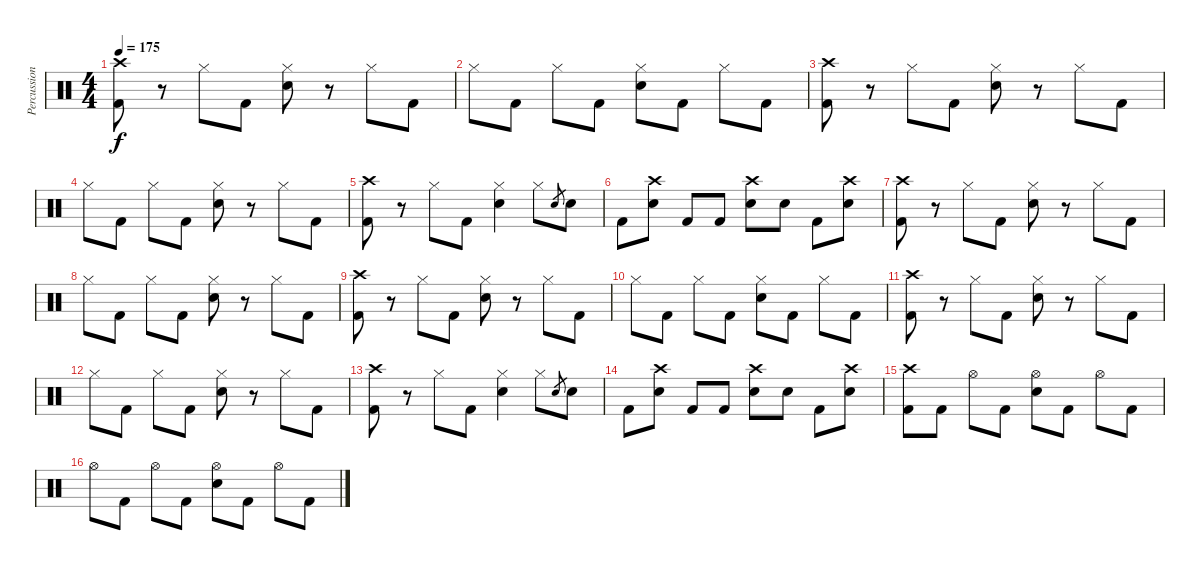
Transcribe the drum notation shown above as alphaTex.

\track ("Percussion" "Percussion") {instrument percussion}
\staff {score}
\articulation defaults
\ts (4 4)
\tempo 175
\clef neutral
\ks c
("Kick (hit) 2" "Crash high (hit)").8{dy f} r.8 "Hi-Hat (closed)".8 "Kick (hit) 2".8 ("Electric Snare (hit)" "Hi-Hat (closed)").8 r.8 "Hi-Hat (closed)".8 "Kick (hit) 2".8 |
"Hi-Hat (closed)".8 "Kick (hit) 2".8 "Hi-Hat (closed)".8 "Kick (hit) 2".8 ("Electric Snare (hit)" "Hi-Hat (closed)").8 "Kick (hit) 2".8 "Hi-Hat (closed)".8 "Kick (hit) 2".8 |
("Kick (hit) 2" "Crash high (hit)").8 r.8 "Hi-Hat (closed)".8 "Kick (hit) 2".8 ("Electric Snare (hit)" "Hi-Hat (closed)").8 r.8 "Hi-Hat (closed)".8 "Kick (hit) 2".8 |
"Hi-Hat (closed)".8 "Kick (hit) 2".8 "Hi-Hat (closed)".8 "Kick (hit) 2".8 ("Electric Snare (hit)" "Hi-Hat (closed)").8 r.8 "Hi-Hat (closed)".8 "Kick (hit) 2".8 |
("Kick (hit) 2" "Crash high (hit)").8 r.8 "Hi-Hat (closed)".8 "Kick (hit) 2".8 ("Electric Snare (hit)" "Hi-Hat (closed)").4 "Hi-Hat (closed)".8 "Electric Snare (hit)".8{gr} "Electric Snare (hit)".8 |
"Kick (hit) 2".8 ("Electric Snare (hit)" "Crash high (hit)").8 "Kick (hit) 2".8 "Kick (hit) 2".8 ("Electric Snare (hit)" "Crash high (hit)").8 "Electric Snare (hit)".8 "Kick (hit) 2".8 ("Electric Snare (hit)" "Crash high (hit)").8 |
("Kick (hit) 2" "Crash high (hit)").8 r.8 "Hi-Hat (closed)".8 "Kick (hit) 2".8 ("Electric Snare (hit)" "Hi-Hat (closed)").8 r.8 "Hi-Hat (closed)".8 "Kick (hit) 2".8 |
"Hi-Hat (closed)".8 "Kick (hit) 2".8 "Hi-Hat (closed)".8 "Kick (hit) 2".8 ("Electric Snare (hit)" "Hi-Hat (closed)").8 r.8 "Hi-Hat (closed)".8 "Kick (hit) 2".8 |
("Kick (hit) 2" "Crash high (hit)").8 r.8 "Hi-Hat (closed)".8 "Kick (hit) 2".8 ("Electric Snare (hit)" "Hi-Hat (closed)").8 r.8 "Hi-Hat (closed)".8 "Kick (hit) 2".8 |
"Hi-Hat (closed)".8 "Kick (hit) 2".8 "Hi-Hat (closed)".8 "Kick (hit) 2".8 ("Electric Snare (hit)" "Hi-Hat (closed)").8 "Kick (hit) 2".8 "Hi-Hat (closed)".8 "Kick (hit) 2".8 |
("Kick (hit) 2" "Crash high (hit)").8 r.8 "Hi-Hat (closed)".8 "Kick (hit) 2".8 ("Electric Snare (hit)" "Hi-Hat (closed)").8 r.8 "Hi-Hat (closed)".8 "Kick (hit) 2".8 |
"Hi-Hat (closed)".8 "Kick (hit) 2".8 "Hi-Hat (closed)".8 "Kick (hit) 2".8 ("Electric Snare (hit)" "Hi-Hat (closed)").8 r.8 "Hi-Hat (closed)".8 "Kick (hit) 2".8 |
("Kick (hit) 2" "Crash high (hit)").8 r.8 "Hi-Hat (closed)".8 "Kick (hit) 2".8 ("Electric Snare (hit)" "Hi-Hat (closed)").4 "Hi-Hat (closed)".8 "Electric Snare (hit)".8{gr} "Electric Snare (hit)".8 |
"Kick (hit) 2".8 ("Electric Snare (hit)" "Crash high (hit)").8 "Kick (hit) 2".8 "Kick (hit) 2".8 ("Electric Snare (hit)" "Crash high (hit)").8 "Electric Snare (hit)".8 "Kick (hit) 2".8 ("Electric Snare (hit)" "Crash high (hit)").8 |
("Kick (hit) 2" "Crash high (hit)").8 "Kick (hit) 2".8 "Hi-Hat (open)".8 "Kick (hit) 2".8 ("Electric Snare (hit)" "Hi-Hat (open)").8 "Kick (hit) 2".8 "Hi-Hat (open)".8 "Kick (hit) 2".8 |
"Hi-Hat (open)".8 "Kick (hit) 2".8 "Hi-Hat (open)".8 "Kick (hit) 2".8 ("Electric Snare (hit)" "Hi-Hat (open)").8 "Kick (hit) 2".8 "Hi-Hat (open)".8 "Kick (hit) 2".8
